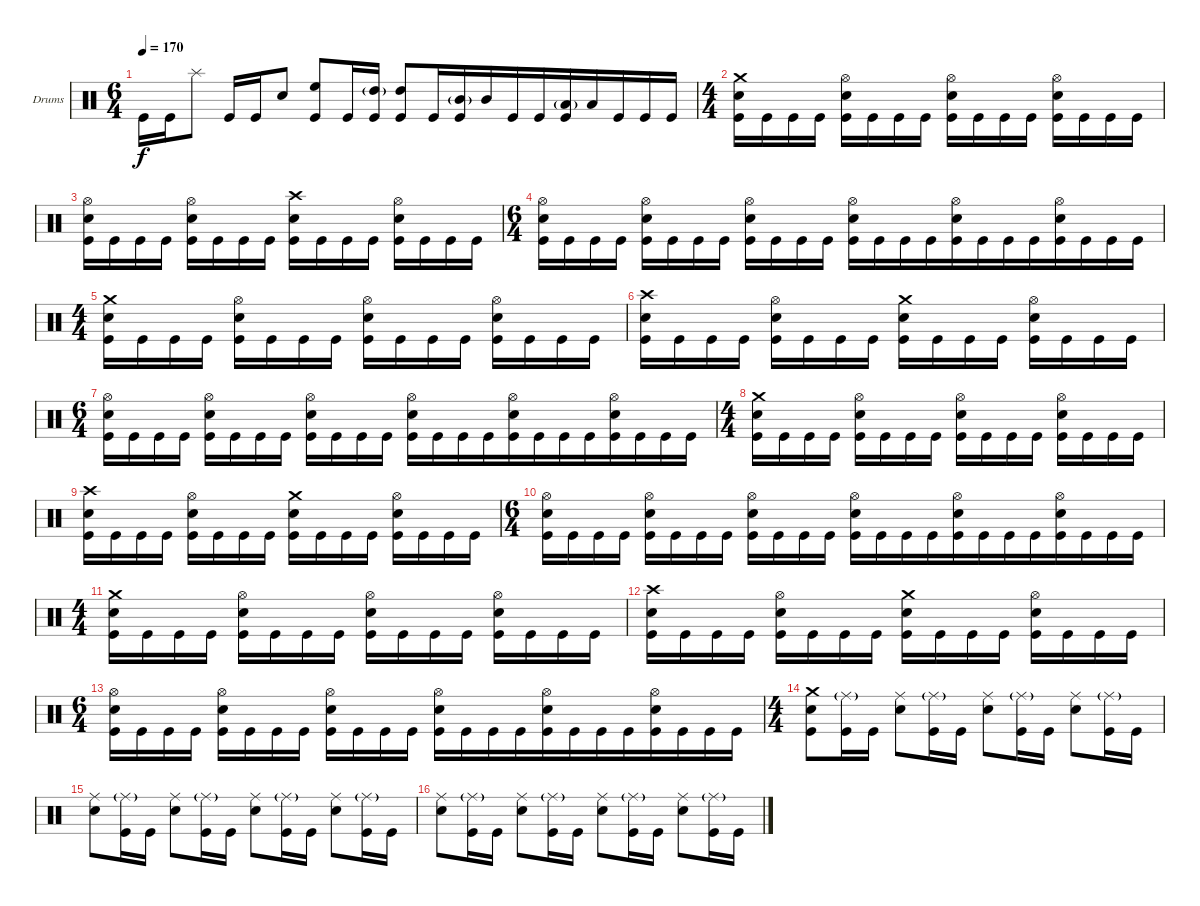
\bracketExtendMode groupsimilarinstruments
\firstSystemTrackNameOrientation horizontal
\otherSystemsTrackNameOrientation horizontal
\track ("Дмитрий Кривенков" "Drums") {instrument percussion}
\staff {score}
\articulation defaults
\ts (6 4)
\beaming (8 2 2 2 6)
\tempo 170
\clef neutral
\ks c "Kick (hit)".16{dy f} "Kick (hit)".16 "Splash (hit)".8 "Kick (hit)".16 "Kick (hit)".16 "Snare (hit) 2".8
("High Floor Tom (hit)" "Kick (hit)").8 "Kick (hit)".16 ("High Tom (hit)"{g} "Kick (hit)").16 ("High Tom (hit)" "Kick (hit)").8 "Kick (hit)".16 ("Mid Tom (hit)"{g} "Kick (hit)").16 "Mid Tom (hit)".16 "Kick (hit)".16 "Kick (hit)".16 ("Low Tom (hit)"{g} "Kick (hit)").16 "Low Tom (hit)".16 "Kick (hit)".16 "Kick (hit)".16 "Kick (hit)".16 |
\ts (4 4)
\beaming (8 2 2 2 2)
("Crash medium (hit)" "Snare (hit) 2" "Kick (hit)").16 "Kick (hit)".16 "Kick (hit)".16 "Kick (hit)".16 ("Hi-Hat (open)" "Snare (hit) 2" "Kick (hit)").16 "Kick (hit)".16 "Kick (hit)".16 "Kick (hit)".16 ("Hi-Hat (open)" "Snare (hit) 2" "Kick (hit)").16 "Kick (hit)".16 "Kick (hit)".16 "Kick (hit)".16 ("Hi-Hat (open)" "Snare (hit) 2" "Kick (hit)").16 "Kick (hit)".16 "Kick (hit)".16 "Kick (hit)".16 |
("Hi-Hat (open)" "Snare (hit) 2" "Kick (hit)").16 "Kick (hit)".16 "Kick (hit)".16 "Kick (hit)".16 ("Hi-Hat (open)" "Snare (hit) 2" "Kick (hit)").16 "Kick (hit)".16 "Kick (hit)".16 "Kick (hit)".16 ("Crash high (hit)" "Snare (hit) 2" "Kick (hit)").16 "Kick (hit)".16 "Kick (hit)".16 "Kick (hit)".16 ("Hi-Hat (open)" "Snare (hit) 2" "Kick (hit)").16 "Kick (hit)".16 "Kick (hit)".16 "Kick (hit)".16 |
\ts (6 4)
\beaming (8 2 2 2 6)
("Hi-Hat (open)" "Snare (hit) 2" "Kick (hit)").16 "Kick (hit)".16 "Kick (hit)".16 "Kick (hit)".16 ("Hi-Hat (open)" "Snare (hit) 2" "Kick (hit)").16 "Kick (hit)".16 "Kick (hit)".16 "Kick (hit)".16 ("Hi-Hat (open)" "Snare (hit) 2" "Kick (hit)").16 "Kick (hit)".16 "Kick (hit)".16 "Kick (hit)".16 ("Hi-Hat (open)" "Snare (hit) 2" "Kick (hit)").16 "Kick (hit)".16 "Kick (hit)".16 "Kick (hit)".16 ("Hi-Hat (open)" "Snare (hit) 2" "Kick (hit)").16 "Kick (hit)".16 "Kick (hit)".16 "Kick (hit)".16 ("Hi-Hat (open)" "Snare (hit) 2" "Kick (hit)").16 "Kick (hit)".16 "Kick (hit)".16 "Kick (hit)".16 |
\ts (4 4)
\beaming (8 2 2 2 2)
("Crash medium (hit)" "Snare (hit) 2" "Kick (hit)").16 "Kick (hit)".16 "Kick (hit)".16 "Kick (hit)".16 ("Hi-Hat (open)" "Snare (hit) 2" "Kick (hit)").16 "Kick (hit)".16 "Kick (hit)".16 "Kick (hit)".16 ("Hi-Hat (open)" "Snare (hit) 2" "Kick (hit)").16 "Kick (hit)".16 "Kick (hit)".16 "Kick (hit)".16 ("Hi-Hat (open)" "Snare (hit) 2" "Kick (hit)").16 "Kick (hit)".16 "Kick (hit)".16 "Kick (hit)".16 |
("Crash high (hit)" "Snare (hit) 2" "Kick (hit)").16 "Kick (hit)".16 "Kick (hit)".16 "Kick (hit)".16 ("Hi-Hat (open)" "Snare (hit) 2" "Kick (hit)").16 "Kick (hit)".16 "Kick (hit)".16 "Kick (hit)".16 ("Crash medium (hit)" "Snare (hit) 2" "Kick (hit)").16 "Kick (hit)".16 "Kick (hit)".16 "Kick (hit)".16 ("Hi-Hat (open)" "Snare (hit) 2" "Kick (hit)").16 "Kick (hit)".16 "Kick (hit)".16 "Kick (hit)".16 |
\ts (6 4)
\beaming (8 2 2 2 6)
("Hi-Hat (open)" "Snare (hit) 2" "Kick (hit)").16 "Kick (hit)".16 "Kick (hit)".16 "Kick (hit)".16 ("Hi-Hat (open)" "Snare (hit) 2" "Kick (hit)").16 "Kick (hit)".16 "Kick (hit)".16 "Kick (hit)".16 ("Hi-Hat (open)" "Snare (hit) 2" "Kick (hit)").16 "Kick (hit)".16 "Kick (hit)".16 "Kick (hit)".16 ("Hi-Hat (open)" "Snare (hit) 2" "Kick (hit)").16 "Kick (hit)".16 "Kick (hit)".16 "Kick (hit)".16 ("Hi-Hat (open)" "Snare (hit) 2" "Kick (hit)").16 "Kick (hit)".16 "Kick (hit)".16 "Kick (hit)".16 ("Hi-Hat (open)" "Snare (hit) 2" "Kick (hit)").16 "Kick (hit)".16 "Kick (hit)".16 "Kick (hit)".16 |
\ts (4 4)
\beaming (8 2 2 2 2)
("Crash medium (hit)" "Snare (hit) 2" "Kick (hit)").16 "Kick (hit)".16 "Kick (hit)".16 "Kick (hit)".16 ("Hi-Hat (open)" "Snare (hit) 2" "Kick (hit)").16 "Kick (hit)".16 "Kick (hit)".16 "Kick (hit)".16 ("Hi-Hat (open)" "Snare (hit) 2" "Kick (hit)").16 "Kick (hit)".16 "Kick (hit)".16 "Kick (hit)".16 ("Hi-Hat (open)" "Snare (hit) 2" "Kick (hit)").16 "Kick (hit)".16 "Kick (hit)".16 "Kick (hit)".16 |
("Crash high (hit)" "Snare (hit) 2" "Kick (hit)").16 "Kick (hit)".16 "Kick (hit)".16 "Kick (hit)".16 ("Hi-Hat (open)" "Snare (hit) 2" "Kick (hit)").16 "Kick (hit)".16 "Kick (hit)".16 "Kick (hit)".16 ("Crash medium (hit)" "Snare (hit) 2" "Kick (hit)").16 "Kick (hit)".16 "Kick (hit)".16 "Kick (hit)".16 ("Hi-Hat (open)" "Snare (hit) 2" "Kick (hit)").16 "Kick (hit)".16 "Kick (hit)".16 "Kick (hit)".16 |
\ts (6 4)
\beaming (8 2 2 2 6)
("Hi-Hat (open)" "Snare (hit) 2" "Kick (hit)").16 "Kick (hit)".16 "Kick (hit)".16 "Kick (hit)".16 ("Hi-Hat (open)" "Snare (hit) 2" "Kick (hit)").16 "Kick (hit)".16 "Kick (hit)".16 "Kick (hit)".16 ("Hi-Hat (open)" "Snare (hit) 2" "Kick (hit)").16 "Kick (hit)".16 "Kick (hit)".16 "Kick (hit)".16 ("Hi-Hat (open)" "Snare (hit) 2" "Kick (hit)").16 "Kick (hit)".16 "Kick (hit)".16 "Kick (hit)".16 ("Hi-Hat (open)" "Snare (hit) 2" "Kick (hit)").16 "Kick (hit)".16 "Kick (hit)".16 "Kick (hit)".16 ("Hi-Hat (open)" "Snare (hit) 2" "Kick (hit)").16 "Kick (hit)".16 "Kick (hit)".16 "Kick (hit)".16 |
\ts (4 4)
\beaming (8 2 2 2 2)
("Crash medium (hit)" "Snare (hit) 2" "Kick (hit)").16 "Kick (hit)".16 "Kick (hit)".16 "Kick (hit)".16 ("Hi-Hat (open)" "Snare (hit) 2" "Kick (hit)").16 "Kick (hit)".16 "Kick (hit)".16 "Kick (hit)".16 ("Hi-Hat (open)" "Snare (hit) 2" "Kick (hit)").16 "Kick (hit)".16 "Kick (hit)".16 "Kick (hit)".16 ("Hi-Hat (open)" "Snare (hit) 2" "Kick (hit)").16 "Kick (hit)".16 "Kick (hit)".16 "Kick (hit)".16 |
("Crash high (hit)" "Snare (hit) 2" "Kick (hit)").16 "Kick (hit)".16 "Kick (hit)".16 "Kick (hit)".16 ("Hi-Hat (open)" "Snare (hit) 2" "Kick (hit)").16 "Kick (hit)".16 "Kick (hit)".16 "Kick (hit)".16 ("Crash medium (hit)" "Snare (hit) 2" "Kick (hit)").16 "Kick (hit)".16 "Kick (hit)".16 "Kick (hit)".16 ("Hi-Hat (open)" "Snare (hit) 2" "Kick (hit)").16 "Kick (hit)".16 "Kick (hit)".16 "Kick (hit)".16 |
\ts (6 4)
\beaming (8 2 2 2 6)
("Hi-Hat (open)" "Snare (hit) 2" "Kick (hit)").16 "Kick (hit)".16 "Kick (hit)".16 "Kick (hit)".16 ("Hi-Hat (open)" "Snare (hit) 2" "Kick (hit)").16 "Kick (hit)".16 "Kick (hit)".16 "Kick (hit)".16 ("Hi-Hat (open)" "Snare (hit) 2" "Kick (hit)").16 "Kick (hit)".16 "Kick (hit)".16 "Kick (hit)".16 ("Hi-Hat (open)" "Snare (hit) 2" "Kick (hit)").16 "Kick (hit)".16 "Kick (hit)".16 "Kick (hit)".16 ("Hi-Hat (open)" "Snare (hit) 2" "Kick (hit)").16 "Kick (hit)".16 "Kick (hit)".16 "Kick (hit)".16 ("Hi-Hat (open)" "Snare (hit) 2" "Kick (hit)").16 "Kick (hit)".16 "Kick (hit)".16 "Kick (hit)".16 |
\ts (4 4)
\beaming (8 2 2 2 2)
("Crash medium (hit)" "Snare (hit) 2" "Kick (hit)").8 ("Ride (middle)"{g} "Kick (hit)").16 "Kick (hit)".16 ("Ride (middle)" "Snare (hit) 2").8 ("Ride (middle)"{g} "Kick (hit)").16 "Kick (hit)".16 ("Ride (middle)" "Snare (hit) 2").8 ("Ride (middle)"{g} "Kick (hit)").16 "Kick (hit)".16 ("Ride (middle)" "Snare (hit) 2").8 ("Ride (middle)"{g} "Kick (hit)").16 "Kick (hit)".16 |
("Ride (middle)" "Snare (hit) 2").8 ("Ride (middle)"{g} "Kick (hit)").16 "Kick (hit)".16 ("Ride (middle)" "Snare (hit) 2").8 ("Ride (middle)"{g} "Kick (hit)").16 "Kick (hit)".16 ("Ride (middle)" "Snare (hit) 2").8 ("Ride (middle)"{g} "Kick (hit)").16 "Kick (hit)".16 ("Ride (middle)" "Snare (hit) 2").8 ("Ride (middle)"{g} "Kick (hit)").16 "Kick (hit)".16 |
("Ride (middle)" "Snare (hit) 2").8 ("Ride (middle)"{g} "Kick (hit)").16 "Kick (hit)".16 ("Ride (middle)" "Snare (hit) 2").8 ("Ride (middle)"{g} "Kick (hit)").16 "Kick (hit)".16 ("Ride (middle)" "Snare (hit) 2").8 ("Ride (middle)"{g} "Kick (hit)").16 "Kick (hit)".16 ("Ride (middle)" "Snare (hit) 2").8 ("Ride (middle)"{g} "Kick (hit)").16 "Kick (hit)".16
